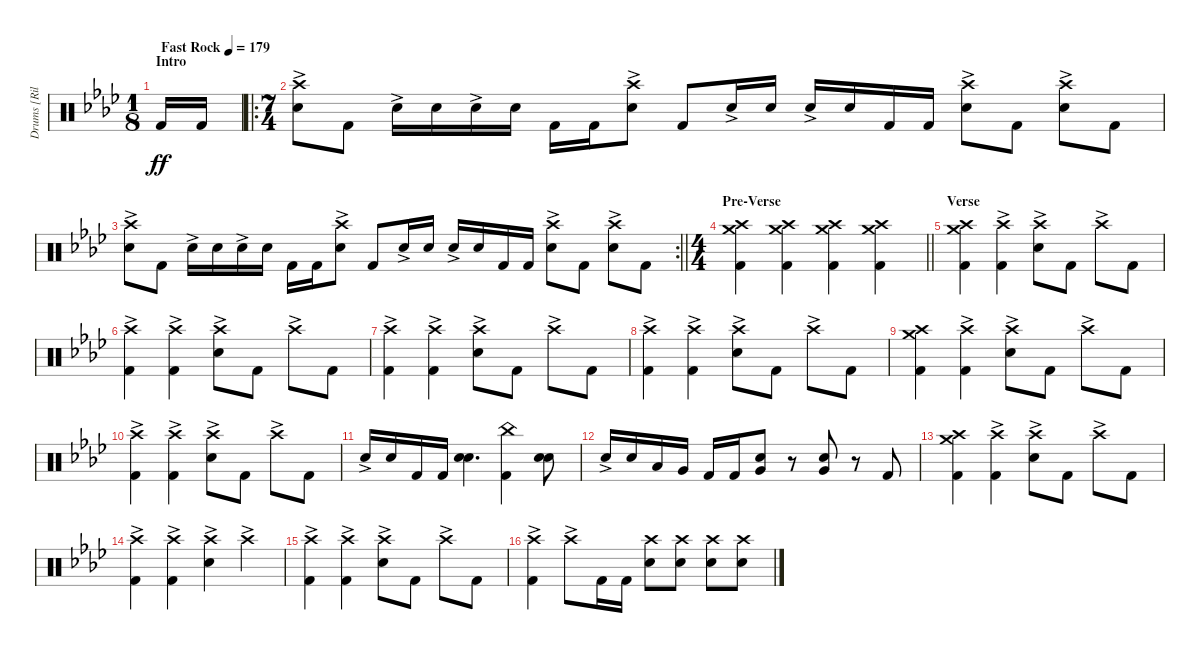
\track ("Drums [Riley]" "Drums [Ril") {instrument percussion}
\staff {score}
\articulation defaults
\ts (1 8)
\section ("" "Intro")
\tempo (179 "Fast Rock")
\clef neutral
\ks ab "Kick (hit) 2".16{dy ff} "Kick (hit) 2".16
|
\ro
\ts (7 4)
("Crash high (hit)"{ac} "Electric Snare (hit)").8 "Kick (hit) 2".8 "Electric Snare (hit)"{ac}.16 "Electric Snare (hit)".16 "Electric Snare (hit)"{ac}.16 "Electric Snare (hit)".16 "Kick (hit) 2".16 "Kick (hit) 2".16 ("Crash high (hit)"{ac} "Electric Snare (hit)").8 "Kick (hit) 2".8 "Electric Snare (hit)"{ac}.16 "Electric Snare (hit)".16 "Electric Snare (hit)"{ac}.16 "Electric Snare (hit)".16 "Kick (hit) 2".16 "Kick (hit) 2".16 ("Crash high (hit)"{ac} "Electric Snare (hit)").8 "Kick (hit) 2".8 ("Crash high (hit)"{ac} "Electric Snare (hit)").8 "Kick (hit) 2".8 |
\rc 2
\barLineRight lightlight
("Crash high (hit)"{ac} "Electric Snare (hit)").8 "Kick (hit) 2".8 "Electric Snare (hit)"{ac}.16 "Electric Snare (hit)".16 "Electric Snare (hit)"{ac}.16 "Electric Snare (hit)".16 "Kick (hit) 2".16 "Kick (hit) 2".16 ("Crash high (hit)"{ac} "Electric Snare (hit)").8 "Kick (hit) 2".8 "Electric Snare (hit)"{ac}.16 "Electric Snare (hit)".16 "Electric Snare (hit)"{ac}.16 "Electric Snare (hit)".16 "Kick (hit) 2".16 "Kick (hit) 2".16 ("Crash high (hit)"{ac} "Electric Snare (hit)").8 "Kick (hit) 2".8 ("Crash high (hit)"{ac} "Electric Snare (hit)").8 "Kick (hit) 2".8 |
\ts (4 4)
\section ("" "Pre-Verse")
\barLineRight lightlight
("Crash medium (hit)" "Crash high (hit)" "Kick (hit) 2").4 ("Crash medium (hit)" "Crash high (hit)" "Kick (hit) 2").4 ("Crash medium (hit)" "Crash high (hit)" "Kick (hit) 2").4 ("Crash medium (hit)" "Crash high (hit)" "Kick (hit) 2").4 |
\section ("" "Verse")
("Crash medium (hit)" "Crash high (hit)" "Kick (hit) 2").4 ("Crash high (hit)"{ac} "Kick (hit) 2").4 ("Crash high (hit)"{ac} "Electric Snare (hit)").8 "Kick (hit) 2".8 "Crash high (hit)"{ac}.8 "Kick (hit) 2".8 |
("Crash high (hit)"{ac} "Kick (hit) 2").4 ("Crash high (hit)"{ac} "Kick (hit) 2").4 ("Crash high (hit)"{ac} "Electric Snare (hit)").8 "Kick (hit) 2".8 "Crash high (hit)"{ac}.8 "Kick (hit) 2".8 |
("Crash high (hit)"{ac} "Kick (hit) 2").4 ("Crash high (hit)"{ac} "Kick (hit) 2").4 ("Crash high (hit)"{ac} "Electric Snare (hit)").8 "Kick (hit) 2".8 "Crash high (hit)"{ac}.8 "Kick (hit) 2".8 |
("Crash high (hit)"{ac} "Kick (hit) 2").4 ("Crash high (hit)"{ac} "Kick (hit) 2").4 ("Crash high (hit)"{ac} "Electric Snare (hit)").8 "Kick (hit) 2".8 "Crash high (hit)"{ac}.8 "Kick (hit) 2".8 |
("Crash medium (hit)" "Crash high (hit)" "Kick (hit) 2").4 ("Crash high (hit)"{ac} "Kick (hit) 2").4 ("Crash high (hit)"{ac} "Electric Snare (hit)").8 "Kick (hit) 2".8 "Crash high (hit)"{ac}.8 "Kick (hit) 2".8 |
("Crash high (hit)"{ac} "Kick (hit) 2").4 ("Crash high (hit)"{ac} "Kick (hit) 2").4 ("Crash high (hit)"{ac} "Electric Snare (hit)").8 "Kick (hit) 2".8 "Crash high (hit)"{ac}.8 "Kick (hit) 2".8 |
"Electric Snare (hit)"{ac}.16 "Electric Snare (hit)".16 "Kick (hit) 2".16 "Kick (hit) 2".16 ("Electric Snare (hit)" "Electric Snare (hit)").4{d bu 60} ("China (hit)" "Kick (hit) 2").4 ("Electric Snare (hit)" "Electric Snare (hit)").8{bu 60} |
"Electric Snare (hit)"{ac}.16 "Electric Snare (hit)".16 "Low Tom (hit)".16 "Very Low Tom (hit)".16 "Kick (hit) 2".16 "Kick (hit) 2".16 ("Very Low Tom (hit)" "Electric Snare (hit)").8{bu 60} r.8 ("Very Low Tom (hit)" "Electric Snare (hit)").8{bu 60} r.8 "Kick (hit) 2".8 |
("Crash medium (hit)" "Crash high (hit)" "Kick (hit) 2").4 ("Crash high (hit)"{ac} "Kick (hit) 2").4 ("Crash high (hit)"{ac} "Electric Snare (hit)").8 "Kick (hit) 2".8 "Crash high (hit)"{ac}.8 "Kick (hit) 2".8 |
("Crash high (hit)"{ac} "Kick (hit) 2").4 ("Crash high (hit)"{ac} "Kick (hit) 2").4 ("Crash high (hit)"{ac} "Electric Snare (hit)").4 "Crash high (hit)"{ac}.4 |
("Crash high (hit)"{ac} "Kick (hit) 2").4 ("Crash high (hit)"{ac} "Kick (hit) 2").4 ("Crash high (hit)"{ac} "Electric Snare (hit)").8 "Kick (hit) 2".8 "Crash high (hit)"{ac}.8 "Kick (hit) 2".8 |
("Crash high (hit)"{ac} "Kick (hit) 2").4 "Crash high (hit)"{ac}.8 "Kick (hit) 2".16 "Kick (hit) 2".16 ("Crash high (hit)" "Electric Snare (hit)").8 ("Crash high (hit)" "Electric Snare (hit)").8 ("Crash high (hit)" "Electric Snare (hit)").8 ("Crash high (hit)" "Electric Snare (hit)").8
